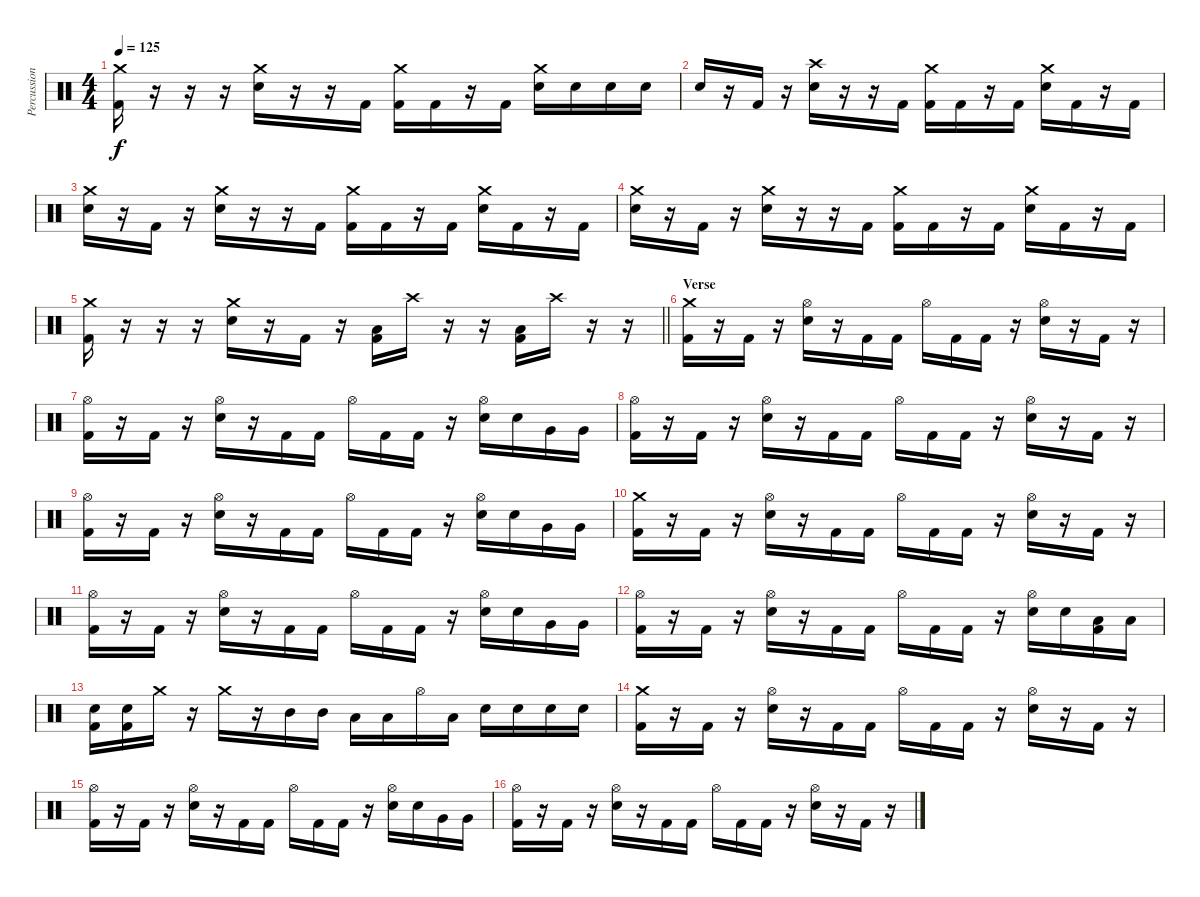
\track ("Percussion" "Percussion") {instrument percussion}
\staff {score}
\articulation defaults
\ts (4 4)
\tempo 125
\clef neutral
\ks c
("Crash medium (hit)" "Kick (hit) 2").16{dy f} r.16 r.16 r.16 ("Crash medium (hit)" "Electric Snare (hit)").16 r.16 r.16 "Kick (hit) 2".16 ("Crash medium (hit)" "Kick (hit) 2").16 "Kick (hit) 2".16 r.16 "Kick (hit) 2".16 ("Crash medium (hit)" "Electric Snare (hit)").16 "Electric Snare (hit)".16 "Electric Snare (hit)".16 "Electric Snare (hit)".16 |
"Electric Snare (hit)".16 r.16 "Kick (hit) 2".16 r.16 ("Crash high (hit)" "Electric Snare (hit)").16 r.16 r.16 "Kick (hit) 2".16 ("Crash medium (hit)" "Kick (hit) 2").16 "Kick (hit) 2".16 r.16 "Kick (hit) 2".16 ("Crash medium (hit)" "Electric Snare (hit)").16 "Kick (hit) 2".16 r.16 "Kick (hit) 2".16 |
("Crash medium (hit)" "Electric Snare (hit)").16 r.16 "Kick (hit) 2".16 r.16 ("Crash medium (hit)" "Electric Snare (hit)").16 r.16 r.16 "Kick (hit) 2".16 ("Crash medium (hit)" "Kick (hit) 2").16 "Kick (hit) 2".16 r.16 "Kick (hit) 2".16 ("Crash medium (hit)" "Electric Snare (hit)").16 "Kick (hit) 2".16 r.16 "Kick (hit) 2".16 |
("Crash medium (hit)" "Electric Snare (hit)").16 r.16 "Kick (hit) 2".16 r.16 ("Crash medium (hit)" "Electric Snare (hit)").16 r.16 r.16 "Kick (hit) 2".16 ("Crash medium (hit)" "Kick (hit) 2").16 "Kick (hit) 2".16 r.16 "Kick (hit) 2".16 ("Crash medium (hit)" "Electric Snare (hit)").16 "Kick (hit) 2".16 r.16 "Kick (hit) 2".16 |
\barLineRight lightlight
("Crash medium (hit)" "Kick (hit) 2").16 r.16 r.16 r.16 ("Crash medium (hit)" "Electric Snare (hit)").16 r.16 "Kick (hit) 2".16 r.16 ("Low Floor Tom (hit)" "Kick (hit) 2").16 "Crash high (hit)".16 r.16 r.16 ("Low Floor Tom (hit)" "Kick (hit) 2").16 "Crash high (hit)".16 r.16 r.16 |
\section ("" "Verse")
("Crash medium (hit)" "Kick (hit) 2").16 r.16 "Kick (hit) 2".16 r.16 ("Hi-Hat (open)" "Electric Snare (hit)").16 r.16 "Kick (hit) 2".16 "Kick (hit) 2".16 "Hi-Hat (open)".16 "Kick (hit) 2".16 "Kick (hit) 2".16 r.16 ("Hi-Hat (open)" "Electric Snare (hit)").16 r.16 "Kick (hit) 2".16 r.16 |
("Hi-Hat (open)" "Kick (hit) 2").16 r.16 "Kick (hit) 2".16 r.16 ("Hi-Hat (open)" "Electric Snare (hit)").16 r.16 "Kick (hit) 2".16 "Kick (hit) 2".16 "Hi-Hat (open)".16 "Kick (hit) 2".16 "Kick (hit) 2".16 r.16 ("Hi-Hat (open)" "Electric Snare (hit)").16 "Electric Snare (hit)".16 "Very Low Tom (hit)".16 "Very Low Tom (hit)".16 |
("Hi-Hat (open)" "Kick (hit) 2").16 r.16 "Kick (hit) 2".16 r.16 ("Hi-Hat (open)" "Electric Snare (hit)").16 r.16 "Kick (hit) 2".16 "Kick (hit) 2".16 "Hi-Hat (open)".16 "Kick (hit) 2".16 "Kick (hit) 2".16 r.16 ("Hi-Hat (open)" "Electric Snare (hit)").16 r.16 "Kick (hit) 2".16 r.16 |
("Hi-Hat (open)" "Kick (hit) 2").16 r.16 "Kick (hit) 2".16 r.16 ("Hi-Hat (open)" "Electric Snare (hit)").16 r.16 "Kick (hit) 2".16 "Kick (hit) 2".16 "Hi-Hat (open)".16 "Kick (hit) 2".16 "Kick (hit) 2".16 r.16 ("Hi-Hat (open)" "Electric Snare (hit)").16 "Electric Snare (hit)".16 "Very Low Tom (hit)".16 "Very Low Tom (hit)".16 |
("Crash medium (hit)" "Kick (hit) 2").16 r.16 "Kick (hit) 2".16 r.16 ("Hi-Hat (open)" "Electric Snare (hit)").16 r.16 "Kick (hit) 2".16 "Kick (hit) 2".16 "Hi-Hat (open)".16 "Kick (hit) 2".16 "Kick (hit) 2".16 r.16 ("Hi-Hat (open)" "Electric Snare (hit)").16 r.16 "Kick (hit) 2".16 r.16 |
("Hi-Hat (open)" "Kick (hit) 2").16 r.16 "Kick (hit) 2".16 r.16 ("Hi-Hat (open)" "Electric Snare (hit)").16 r.16 "Kick (hit) 2".16 "Kick (hit) 2".16 "Hi-Hat (open)".16 "Kick (hit) 2".16 "Kick (hit) 2".16 r.16 ("Hi-Hat (open)" "Electric Snare (hit)").16 "Electric Snare (hit)".16 "Very Low Tom (hit)".16 "Very Low Tom (hit)".16 |
("Hi-Hat (open)" "Kick (hit) 2").16 r.16 "Kick (hit) 2".16 r.16 ("Hi-Hat (open)" "Electric Snare (hit)").16 r.16 "Kick (hit) 2".16 "Kick (hit) 2".16 "Hi-Hat (open)".16 "Kick (hit) 2".16 "Kick (hit) 2".16 r.16 ("Hi-Hat (open)" "Electric Snare (hit)").16 "Electric Snare (hit)".16 ("Low Tom (hit)" "Kick (hit) 2").16 "Low Tom (hit)".16 |
("Electric Snare (hit)" "Kick (hit) 2").16 ("Electric Snare (hit)" "Kick (hit) 2").16 "Crash medium (hit)".16 r.16 "Crash medium (hit)".16 r.16 "Mid Tom (hit)".16 "Mid Tom (hit)".16 "Low Tom (hit)".16 "Low Tom (hit)".16 "Hi-Hat (open)".16 "Low Floor Tom (hit)".16 "Electric Snare (hit)".16 "Electric Snare (hit)".16 "Electric Snare (hit)".16 "Electric Snare (hit)".16 |
("Crash medium (hit)" "Kick (hit) 2").16 r.16 "Kick (hit) 2".16 r.16 ("Hi-Hat (open)" "Electric Snare (hit)").16 r.16 "Kick (hit) 2".16 "Kick (hit) 2".16 "Hi-Hat (open)".16 "Kick (hit) 2".16 "Kick (hit) 2".16 r.16 ("Hi-Hat (open)" "Electric Snare (hit)").16 r.16 "Kick (hit) 2".16 r.16 |
("Hi-Hat (open)" "Kick (hit) 2").16 r.16 "Kick (hit) 2".16 r.16 ("Hi-Hat (open)" "Electric Snare (hit)").16 r.16 "Kick (hit) 2".16 "Kick (hit) 2".16 "Hi-Hat (open)".16 "Kick (hit) 2".16 "Kick (hit) 2".16 r.16 ("Hi-Hat (open)" "Electric Snare (hit)").16 "Electric Snare (hit)".16 "Very Low Tom (hit)".16 "Very Low Tom (hit)".16 |
("Hi-Hat (open)" "Kick (hit) 2").16 r.16 "Kick (hit) 2".16 r.16 ("Hi-Hat (open)" "Electric Snare (hit)").16 r.16 "Kick (hit) 2".16 "Kick (hit) 2".16 "Hi-Hat (open)".16 "Kick (hit) 2".16 "Kick (hit) 2".16 r.16 ("Hi-Hat (open)" "Electric Snare (hit)").16 r.16 "Kick (hit) 2".16 r.16
